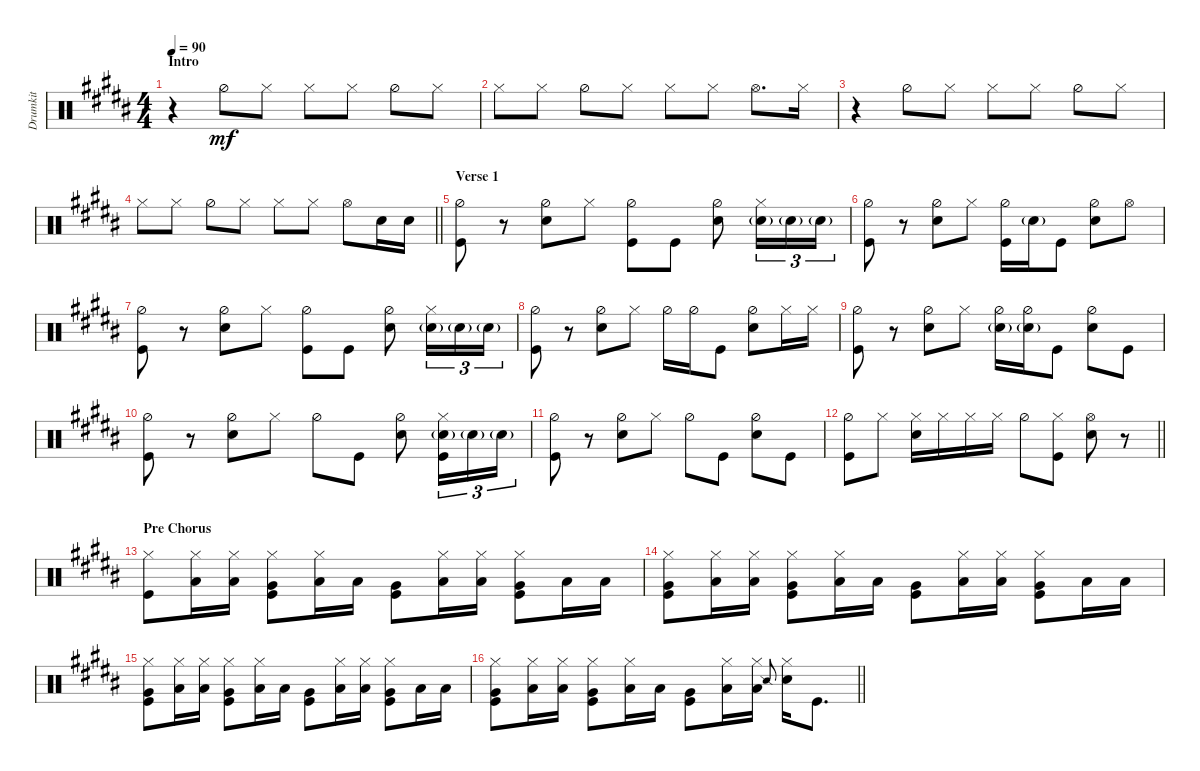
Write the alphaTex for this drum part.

\track ("Drumkit" "Drumkit") {instrument percussion}
\staff {score}
\articulation defaults
\ts (4 4)
\section ("" "Intro")
\tempo 90
\clef neutral
\ks b
r.4{dy mf} "Hi-Hat (half)".8 "Hi-Hat (closed)".8 "Hi-Hat (closed)".8 "Hi-Hat (closed)".8 "Hi-Hat (half)".8 "Hi-Hat (closed)".8 |
"Hi-Hat (closed)".8 "Hi-Hat (closed)".8 "Hi-Hat (half)".8 "Hi-Hat (closed)".8 "Hi-Hat (closed)".8 "Hi-Hat (closed)".8 "Hi-Hat (open)".8{d} "Hi-Hat (closed)".16 |
r.4 "Hi-Hat (half)".8 "Hi-Hat (closed)".8 "Hi-Hat (closed)".8 "Hi-Hat (closed)".8 "Hi-Hat (half)".8 "Hi-Hat (closed)".8 |
\barLineRight lightlight "Hi-Hat (closed)".8 "Hi-Hat (closed)".8 "Hi-Hat (half)".8 "Hi-Hat (closed)".8 "Hi-Hat (closed)".8 "Hi-Hat (closed)".8 "Hi-Hat (open)".8 "Snare (hit) 2".16 "Snare (hit) 2".16
|
\section ("" "Verse 1")
("Kick (hit)" "Hi-Hat (half)").8 r.8 ("Snare (hit) 2" "Hi-Hat (half)").8 "Hi-Hat (closed)".8 ("Kick (hit)" "Hi-Hat (half)").8 "Kick (hit)".8 ("Snare (hit) 2" "Hi-Hat (half)").8 ("Snare (hit) 2"{g} "Hi-Hat (closed)").16{tu (3 2)} "Snare (hit) 2"{g}.16{tu (3 2)} "Snare (hit) 2"{g}.16{tu (3 2)} |
("Kick (hit)" "Hi-Hat (half)").8 r.8 ("Snare (hit) 2" "Hi-Hat (half)").8 "Hi-Hat (closed)".8 ("Kick (hit)" "Hi-Hat (half)").16 "Snare (hit) 2"{g}.16 "Kick (hit)".8 ("Snare (hit) 2" "Hi-Hat (half)").8 "Hi-Hat (open)".8 |
("Kick (hit)" "Hi-Hat (half)").8 r.8 ("Snare (hit) 2" "Hi-Hat (half)").8 "Hi-Hat (closed)".8 ("Kick (hit)" "Hi-Hat (half)").8 "Kick (hit)".8 ("Snare (hit) 2" "Hi-Hat (half)").8 ("Snare (hit) 2"{g} "Hi-Hat (closed)").16{tu (3 2)} "Snare (hit) 2"{g}.16{tu (3 2)} "Snare (hit) 2"{g}.16{tu (3 2)} |
("Kick (hit)" "Hi-Hat (half)").8 r.8 ("Snare (hit) 2" "Hi-Hat (half)").8 "Hi-Hat (closed)".8 "Hi-Hat (half)".16 "Hi-Hat (half)".16 "Kick (hit)".8 ("Snare (hit) 2" "Hi-Hat (half)").8 "Hi-Hat (closed)".16 "Hi-Hat (closed)".16 |
("Kick (hit)" "Hi-Hat (half)").8 r.8 ("Snare (hit) 2" "Hi-Hat (half)").8 "Hi-Hat (closed)".8 ("Hi-Hat (half)" "Snare (hit) 2"{g}).16 ("Hi-Hat (half)" "Snare (hit) 2"{g}).16 "Kick (hit)".8 ("Snare (hit) 2" "Hi-Hat (half)").8 "Kick (hit)".8 |
("Kick (hit)" "Hi-Hat (half)").8 r.8 ("Snare (hit) 2" "Hi-Hat (half)").8 "Hi-Hat (closed)".8 "Hi-Hat (half)".8 "Kick (hit)".8 ("Snare (hit) 2" "Hi-Hat (half)").8 ("Snare (hit) 2"{g} "Hi-Hat (closed)" "Kick (hit)").16{tu (3 2)} "Snare (hit) 2"{g}.16{tu (3 2)} "Snare (hit) 2"{g}.16{tu (3 2)} |
("Kick (hit)" "Hi-Hat (half)").8 r.8 ("Snare (hit) 2" "Hi-Hat (half)").8 "Hi-Hat (closed)".8 "Hi-Hat (half)".8 "Kick (hit)".8 ("Snare (hit) 2" "Hi-Hat (half)").8 "Kick (hit)".8 |
\barLineRight lightlight
("Hi-Hat (half)" "Kick (hit)").8 "Hi-Hat (closed)".8 ("Hi-Hat (closed)" "Snare (hit) 2").16 "Hi-Hat (closed)".16 "Hi-Hat (closed)".16 "Hi-Hat (closed)".16 "Hi-Hat (half)".8 ("Hi-Hat (closed)" "Kick (hit)").8 ("Hi-Hat (open)" "Snare (hit) 2").8 r.8 |
\section ("" "Pre Chorus")
("Hi-Hat (closed)" "Kick (hit)").8 ("Hi-Hat (closed)" "Low Tom (hit)").16 ("Hi-Hat (closed)" "Low Tom (hit)").16 ("Hi-Hat (closed)" "Kick (hit)" "Very Low Tom (hit)").8 ("Hi-Hat (closed)" "Low Tom (hit)").16 "Low Tom (hit)".16 ("Kick (hit)" "Very Low Tom (hit)").8 ("Hi-Hat (closed)" "Low Tom (hit)").16 ("Hi-Hat (closed)" "Low Tom (hit)").16 ("Hi-Hat (closed)" "Kick (hit)" "Very Low Tom (hit)").8 "Low Tom (hit)".16 "Low Tom (hit)".16 |
("Hi-Hat (closed)" "Kick (hit)" "Very Low Tom (hit)").8 ("Hi-Hat (closed)" "Low Tom (hit)").16 ("Hi-Hat (closed)" "Low Tom (hit)").16 ("Hi-Hat (closed)" "Kick (hit)" "Very Low Tom (hit)").8 ("Hi-Hat (closed)" "Low Tom (hit)").16 "Low Tom (hit)".16 ("Kick (hit)" "Very Low Tom (hit)").8 ("Hi-Hat (closed)" "Low Tom (hit)").16 ("Hi-Hat (closed)" "Low Tom (hit)").16 ("Hi-Hat (closed)" "Kick (hit)" "Very Low Tom (hit)").8 "Low Tom (hit)".16 "Low Tom (hit)".16 |
("Hi-Hat (closed)" "Kick (hit)" "Very Low Tom (hit)").8 ("Hi-Hat (closed)" "Low Tom (hit)").16 ("Hi-Hat (closed)" "Low Tom (hit)").16 ("Hi-Hat (closed)" "Kick (hit)" "Very Low Tom (hit)").8 ("Hi-Hat (closed)" "Low Tom (hit)").16 "Low Tom (hit)".16 ("Kick (hit)" "Very Low Tom (hit)").8 ("Hi-Hat (closed)" "Low Tom (hit)").16 ("Hi-Hat (closed)" "Low Tom (hit)").16 ("Hi-Hat (closed)" "Kick (hit)" "Very Low Tom (hit)").8 "Low Tom (hit)".16 "Low Tom (hit)".16 |
\barLineRight lightlight
("Hi-Hat (closed)" "Kick (hit)" "Very Low Tom (hit)").8 ("Hi-Hat (closed)" "Low Tom (hit)").16 ("Hi-Hat (closed)" "Low Tom (hit)").16 ("Hi-Hat (closed)" "Kick (hit)" "Very Low Tom (hit)").8 ("Hi-Hat (closed)" "Low Tom (hit)").16 "Low Tom (hit)".16 ("Kick (hit)" "Very Low Tom (hit)").8 ("Hi-Hat (closed)" "Low Tom (hit)").16 ("Hi-Hat (closed)" "Low Tom (hit)").16 "Snare (side stick) 2".8{gr onbeat} ("Hi-Hat (closed)" "Snare (hit) 2").16 "Kick (hit)".8{d}
